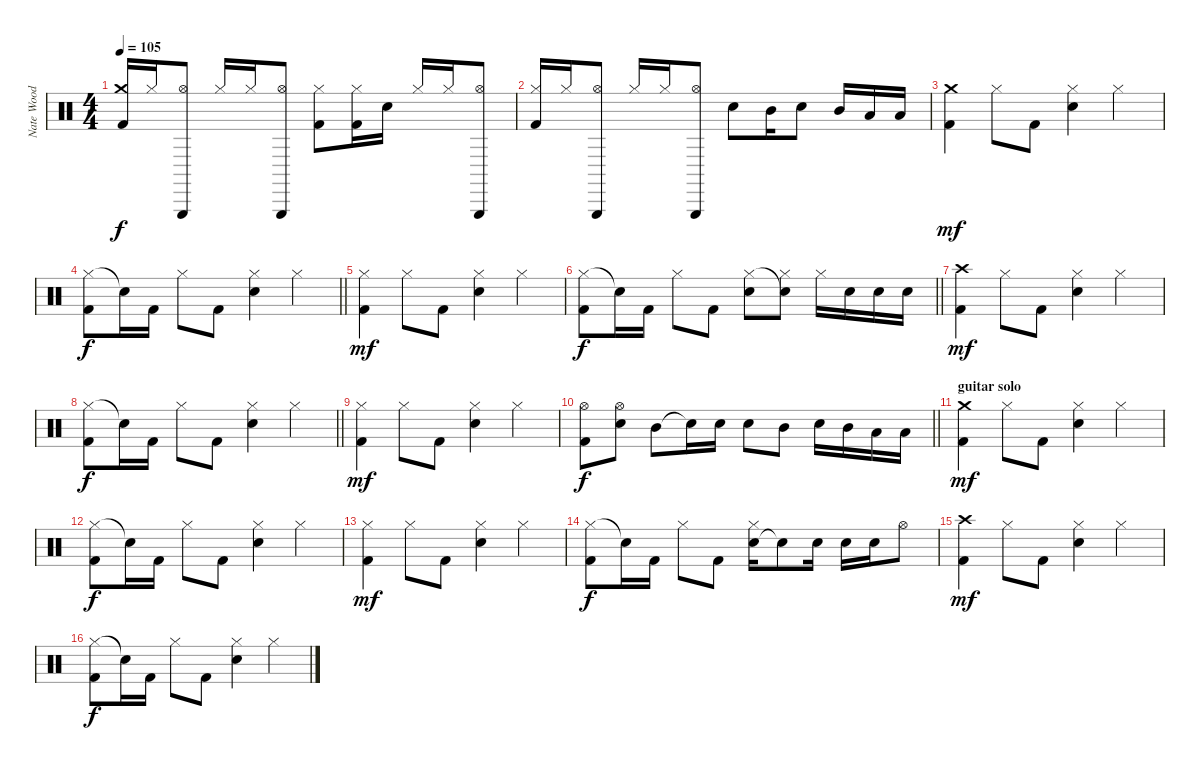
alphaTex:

\track ("Nate Wood" "Nate Wood") {instrument percussion}
\staff {score}
\articulation defaults
\ts (4 4)
\tempo 105
\clef neutral
\ks c
("Crash medium (hit)" "Kick (hit) 2").16{dy f} "Hi-Hat (closed)".16 ("Triangle (hit)" "Hi-Hat (open)").8 "Hi-Hat (closed)".16 "Hi-Hat (closed)".16 ("Triangle (hit)" "Hi-Hat (open)").8 ("Hi-Hat (closed)" "Kick (hit) 2").8 ("Hi-Hat (closed)" "Kick (hit) 2").16 "Electric Snare (hit)".16 "Hi-Hat (closed)".16 "Hi-Hat (closed)".16 ("Triangle (hit)" "Hi-Hat (open)").8 |
("Hi-Hat (closed)" "Kick (hit) 2").16 "Hi-Hat (closed)".16 ("Triangle (hit)" "Hi-Hat (open)").8 "Hi-Hat (closed)".16 "Hi-Hat (closed)".16 ("Triangle (hit)" "Hi-Hat (open)").8 "Electric Snare (hit)".8 "Mid Tom (hit)".16 "Electric Snare (hit)".8 "Mid Tom (hit)".16 "Low Tom (hit)".16 "Low Tom (hit)".16 |
("Crash medium (hit)" "Kick (hit) 2").4{dy mf} "Hi-Hat (closed)".8 "Kick (hit) 2".8 ("Electric Snare (hit)" "Hi-Hat (closed)").4 "Hi-Hat (closed)".4 |
\barLineRight lightlight
("Hi-Hat (closed)" "Kick (hit) 2").8{dy f} "Snare (hit)"{t}.16 "Kick (hit) 2".16 "Hi-Hat (closed)".8 "Kick (hit) 2".8 ("Electric Snare (hit)" "Hi-Hat (closed)").4 "Hi-Hat (closed)".4 |
("Hi-Hat (closed)" "Kick (hit) 2").4{dy mf} "Hi-Hat (closed)".8 "Kick (hit) 2".8 ("Electric Snare (hit)" "Hi-Hat (closed)").4 "Hi-Hat (closed)".4 |
\barLineRight lightlight
("Hi-Hat (closed)" "Kick (hit) 2").8{dy f} "Snare (hit)"{t}.16 "Kick (hit) 2".16 "Hi-Hat (closed)".8 "Kick (hit) 2".8 ("Electric Snare (hit)" "Hi-Hat (closed)").8 ("Hi-Hat (closed)" "Snare (hit)"{t}).8 "Hi-Hat (closed)".16 "Electric Snare (hit)".16 "Electric Snare (hit)".16 "Electric Snare (hit)".16 |
("Crash high (hit)" "Kick (hit) 2").4{dy mf} "Hi-Hat (closed)".8 "Kick (hit) 2".8 ("Electric Snare (hit)" "Hi-Hat (closed)").4 "Hi-Hat (closed)".4 |
\barLineRight lightlight
("Hi-Hat (closed)" "Kick (hit) 2").8{dy f} "Snare (hit)"{t}.16 "Kick (hit) 2".16 "Hi-Hat (closed)".8 "Kick (hit) 2".8 ("Electric Snare (hit)" "Hi-Hat (closed)").4 "Hi-Hat (closed)".4 |
("Hi-Hat (closed)" "Kick (hit) 2").4{dy mf} "Hi-Hat (closed)".8 "Kick (hit) 2".8 ("Electric Snare (hit)" "Hi-Hat (closed)").4 "Hi-Hat (closed)".4 |
\barLineRight lightlight
("Hi-Hat (open)" "Kick (hit) 2").8{dy f} ("Electric Snare (hit)" "Hi-Hat (open)").8 "Mid Tom (hit)".8 "Snare (hit)"{t}.16 "Electric Snare (hit)".16 "Electric Snare (hit)".8 "Mid Tom (hit)".8 "Electric Snare (hit)".16 "Mid Tom (hit)".16 "Low Tom (hit)".16 "Low Tom (hit)".16 |
\section ("" "guitar solo")
("Crash medium (hit)" "Kick (hit) 2").4{dy mf} "Hi-Hat (closed)".8 "Kick (hit) 2".8 ("Electric Snare (hit)" "Hi-Hat (closed)").4 "Hi-Hat (closed)".4 |
("Hi-Hat (closed)" "Kick (hit) 2").8{dy f} "Snare (hit)"{t}.16 "Kick (hit) 2".16 "Hi-Hat (closed)".8 "Kick (hit) 2".8 ("Electric Snare (hit)" "Hi-Hat (closed)").4 "Hi-Hat (closed)".4 |
("Hi-Hat (closed)" "Kick (hit) 2").4{dy mf} "Hi-Hat (closed)".8 "Kick (hit) 2".8 ("Electric Snare (hit)" "Hi-Hat (closed)").4 "Hi-Hat (closed)".4 |
("Hi-Hat (closed)" "Kick (hit) 2").8{dy f} "Snare (hit)"{t}.16 "Kick (hit) 2".16 "Hi-Hat (closed)".8 "Kick (hit) 2".8 ("Electric Snare (hit)" "Hi-Hat (closed)").16 "Snare (hit)"{t}.8 "Electric Snare (hit)".16 "Electric Snare (hit)".16 "Electric Snare (hit)".16 "Hi-Hat (open)".8 |
("Crash high (hit)" "Kick (hit) 2").4{dy mf} "Hi-Hat (closed)".8 "Kick (hit) 2".8 ("Electric Snare (hit)" "Hi-Hat (closed)").4 "Hi-Hat (closed)".4 |
("Hi-Hat (closed)" "Kick (hit) 2").8{dy f} "Snare (hit)"{t}.16 "Kick (hit) 2".16 "Hi-Hat (closed)".8 "Kick (hit) 2".8 ("Electric Snare (hit)" "Hi-Hat (closed)").4 "Hi-Hat (closed)".4
